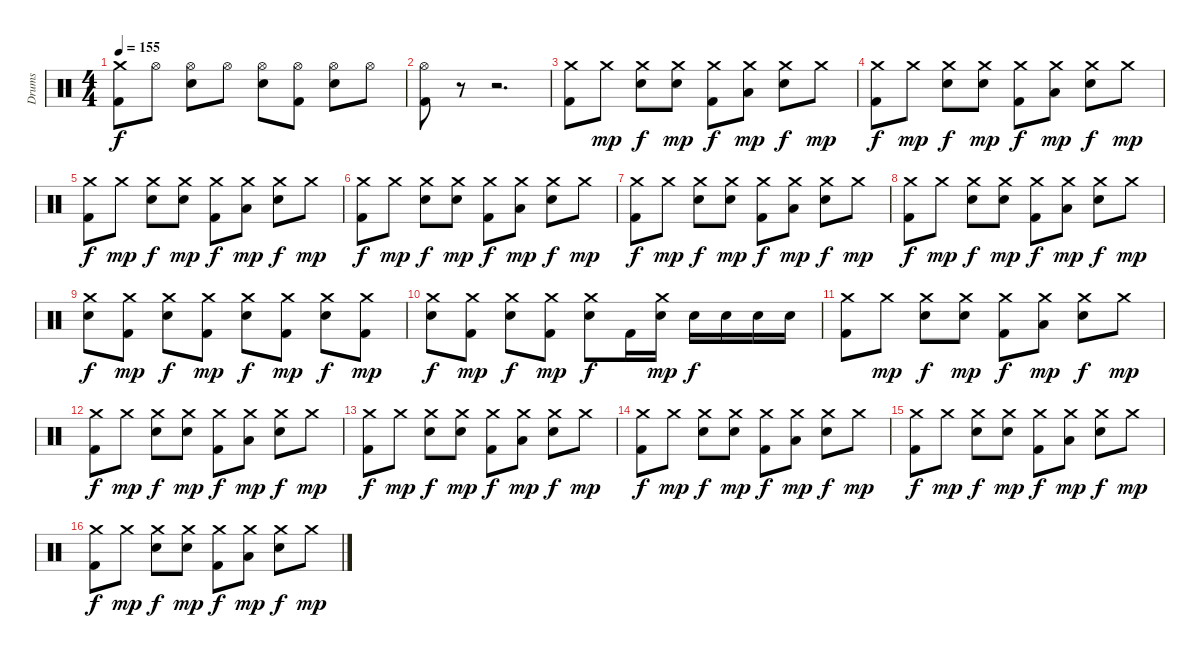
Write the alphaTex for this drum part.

\track ("Drums" "Drums") {instrument percussion}
\staff {score}
\articulation defaults
\ts (4 4)
\tempo 155
\clef neutral
\ks c
("Crash medium (hit)" "Kick (hit) 2").8{dy f} "Hi-Hat (open)".8 ("Hi-Hat (open)" "Snare (hit) 2").8 "Hi-Hat (open)".8 ("Hi-Hat (open)" "Snare (hit) 2").8 ("Hi-Hat (open)" "Kick (hit) 2").8 ("Hi-Hat (open)" "Snare (hit) 2").8 "Hi-Hat (open)".8 |
("Hi-Hat (open)" "Kick (hit) 2").8 r.8 r.2{d} |
("Crash medium (hit)" "Kick (hit) 2").8 "Crash medium (hit)".8{dy mp} ("Crash medium (hit)" "Snare (hit) 2").8{dy f} ("Crash medium (hit)" "Snare (hit) 2").8{dy mp} ("Crash medium (hit)" "Kick (hit) 2").8{dy f} ("Crash medium (hit)" "Low Tom (hit)").8{dy mp} ("Crash medium (hit)" "Snare (hit) 2").8{dy f} "Crash medium (hit)".8{dy mp} |
("Crash medium (hit)" "Kick (hit) 2").8{dy f} "Crash medium (hit)".8{dy mp} ("Crash medium (hit)" "Snare (hit) 2").8{dy f} ("Crash medium (hit)" "Snare (hit) 2").8{dy mp} ("Crash medium (hit)" "Kick (hit) 2").8{dy f} ("Crash medium (hit)" "Low Tom (hit)").8{dy mp} ("Crash medium (hit)" "Snare (hit) 2").8{dy f} "Crash medium (hit)".8{dy mp} |
("Crash medium (hit)" "Kick (hit) 2").8{dy f} "Crash medium (hit)".8{dy mp} ("Crash medium (hit)" "Snare (hit) 2").8{dy f} ("Crash medium (hit)" "Snare (hit) 2").8{dy mp} ("Crash medium (hit)" "Kick (hit) 2").8{dy f} ("Crash medium (hit)" "Low Tom (hit)").8{dy mp} ("Crash medium (hit)" "Snare (hit) 2").8{dy f} "Crash medium (hit)".8{dy mp} |
("Crash medium (hit)" "Kick (hit) 2").8{dy f} "Crash medium (hit)".8{dy mp} ("Crash medium (hit)" "Snare (hit) 2").8{dy f} ("Crash medium (hit)" "Snare (hit) 2").8{dy mp} ("Crash medium (hit)" "Kick (hit) 2").8{dy f} ("Crash medium (hit)" "Low Tom (hit)").8{dy mp} ("Crash medium (hit)" "Snare (hit) 2").8{dy f} "Crash medium (hit)".8{dy mp} |
("Crash medium (hit)" "Kick (hit) 2").8{dy f} "Crash medium (hit)".8{dy mp} ("Crash medium (hit)" "Snare (hit) 2").8{dy f} ("Crash medium (hit)" "Snare (hit) 2").8{dy mp} ("Crash medium (hit)" "Kick (hit) 2").8{dy f} ("Crash medium (hit)" "Low Tom (hit)").8{dy mp} ("Crash medium (hit)" "Snare (hit) 2").8{dy f} "Crash medium (hit)".8{dy mp} |
("Crash medium (hit)" "Kick (hit) 2").8{dy f} "Crash medium (hit)".8{dy mp} ("Crash medium (hit)" "Snare (hit) 2").8{dy f} ("Crash medium (hit)" "Snare (hit) 2").8{dy mp} ("Crash medium (hit)" "Kick (hit) 2").8{dy f} ("Crash medium (hit)" "Low Tom (hit)").8{dy mp} ("Crash medium (hit)" "Snare (hit) 2").8{dy f} "Crash medium (hit)".8{dy mp} |
("Crash medium (hit)" "Snare (hit) 2").8{dy f} ("Crash medium (hit)" "Kick (hit) 2").8{dy mp} ("Crash medium (hit)" "Snare (hit) 2").8{dy f} ("Crash medium (hit)" "Kick (hit) 2").8{dy mp} ("Crash medium (hit)" "Snare (hit) 2").8{dy f} ("Crash medium (hit)" "Kick (hit) 2").8{dy mp} ("Crash medium (hit)" "Snare (hit) 2").8{dy f} ("Crash medium (hit)" "Kick (hit) 2").8{dy mp} |
("Crash medium (hit)" "Snare (hit) 2").8{dy f} ("Crash medium (hit)" "Kick (hit) 2").8{dy mp} ("Crash medium (hit)" "Snare (hit) 2").8{dy f} ("Crash medium (hit)" "Kick (hit) 2").8{dy mp} ("Crash medium (hit)" "Snare (hit) 2").8{dy f} "Kick (hit) 2".16 ("Crash medium (hit)" "Snare (hit) 2").16{dy mp} "Snare (hit) 2".16{dy f} "Snare (hit) 2".16 "Snare (hit) 2".16 "Snare (hit) 2".16 |
("Crash medium (hit)" "Kick (hit) 2").8 "Crash medium (hit)".8{dy mp} ("Crash medium (hit)" "Snare (hit) 2").8{dy f} ("Crash medium (hit)" "Snare (hit) 2").8{dy mp} ("Crash medium (hit)" "Kick (hit) 2").8{dy f} ("Crash medium (hit)" "Low Tom (hit)").8{dy mp} ("Crash medium (hit)" "Snare (hit) 2").8{dy f} "Crash medium (hit)".8{dy mp} |
("Crash medium (hit)" "Kick (hit) 2").8{dy f} "Crash medium (hit)".8{dy mp} ("Crash medium (hit)" "Snare (hit) 2").8{dy f} ("Crash medium (hit)" "Snare (hit) 2").8{dy mp} ("Crash medium (hit)" "Kick (hit) 2").8{dy f} ("Crash medium (hit)" "Low Tom (hit)").8{dy mp} ("Crash medium (hit)" "Snare (hit) 2").8{dy f} "Crash medium (hit)".8{dy mp} |
("Crash medium (hit)" "Kick (hit) 2").8{dy f} "Crash medium (hit)".8{dy mp} ("Crash medium (hit)" "Snare (hit) 2").8{dy f} ("Crash medium (hit)" "Snare (hit) 2").8{dy mp} ("Crash medium (hit)" "Kick (hit) 2").8{dy f} ("Crash medium (hit)" "Low Tom (hit)").8{dy mp} ("Crash medium (hit)" "Snare (hit) 2").8{dy f} "Crash medium (hit)".8{dy mp} |
("Crash medium (hit)" "Kick (hit) 2").8{dy f} "Crash medium (hit)".8{dy mp} ("Crash medium (hit)" "Snare (hit) 2").8{dy f} ("Crash medium (hit)" "Snare (hit) 2").8{dy mp} ("Crash medium (hit)" "Kick (hit) 2").8{dy f} ("Crash medium (hit)" "Low Tom (hit)").8{dy mp} ("Crash medium (hit)" "Snare (hit) 2").8{dy f} "Crash medium (hit)".8{dy mp} |
("Crash medium (hit)" "Kick (hit) 2").8{dy f} "Crash medium (hit)".8{dy mp} ("Crash medium (hit)" "Snare (hit) 2").8{dy f} ("Crash medium (hit)" "Snare (hit) 2").8{dy mp} ("Crash medium (hit)" "Kick (hit) 2").8{dy f} ("Crash medium (hit)" "Low Tom (hit)").8{dy mp} ("Crash medium (hit)" "Snare (hit) 2").8{dy f} "Crash medium (hit)".8{dy mp} |
("Crash medium (hit)" "Kick (hit) 2").8{dy f} "Crash medium (hit)".8{dy mp} ("Crash medium (hit)" "Snare (hit) 2").8{dy f} ("Crash medium (hit)" "Snare (hit) 2").8{dy mp} ("Crash medium (hit)" "Kick (hit) 2").8{dy f} ("Crash medium (hit)" "Low Tom (hit)").8{dy mp} ("Crash medium (hit)" "Snare (hit) 2").8{dy f} "Crash medium (hit)".8{dy mp}
